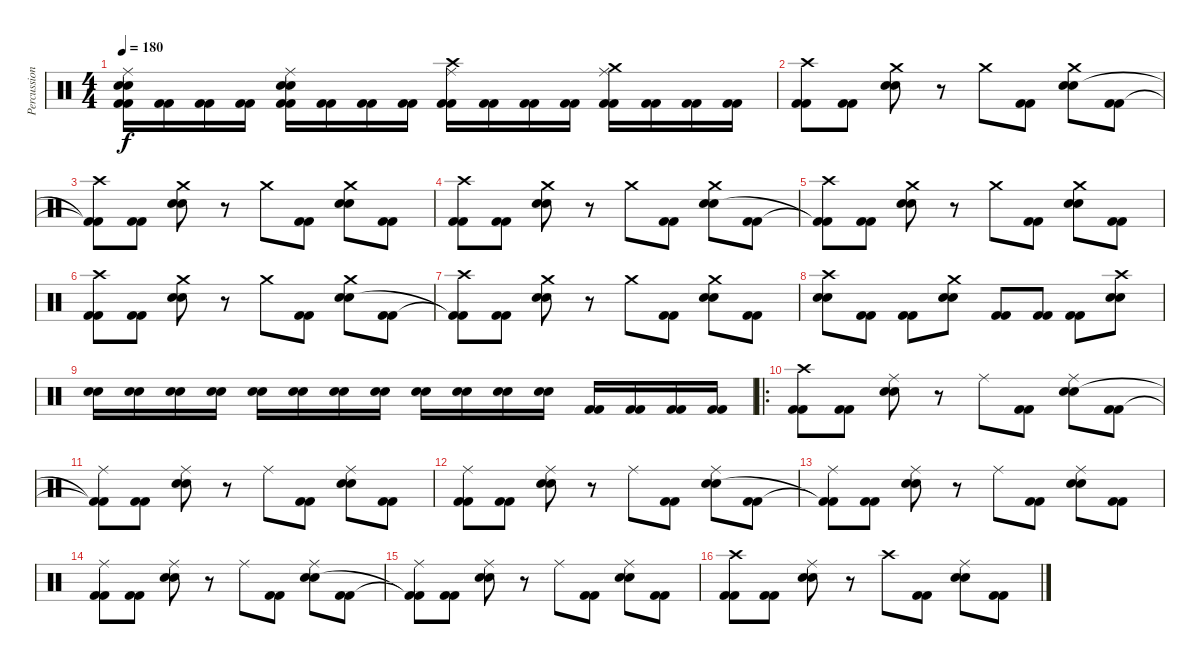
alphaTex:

\track ("Percussion" "Percussion") {instrument percussion}
\staff {score}
\articulation defaults
\ts (4 4)
\tempo 180
\clef neutral
\ks c
("Ride (middle)" "Snare (hit) 2" "Snare (hit) 2" "Kick (hit) 2" "Kick (hit) 2").16{dy f} ("Kick (hit) 2" "Kick (hit) 2").16 ("Kick (hit) 2" "Kick (hit) 2").16 ("Kick (hit) 2" "Kick (hit) 2").16 ("Ride (middle)" "Snare (hit) 2" "Snare (hit) 2" "Kick (hit) 2" "Kick (hit) 2").16 ("Kick (hit) 2" "Kick (hit) 2").16 ("Kick (hit) 2" "Kick (hit) 2").16 ("Kick (hit) 2" "Kick (hit) 2").16 ("Ride (middle)" "Crash high (hit)" "Kick (hit) 2" "Kick (hit) 2").16 ("Kick (hit) 2" "Kick (hit) 2").16 ("Kick (hit) 2" "Kick (hit) 2").16 ("Kick (hit) 2" "Kick (hit) 2").16 ("Ride (middle)" "Crash medium (hit)" "Kick (hit) 2" "Kick (hit) 2").16 ("Kick (hit) 2" "Kick (hit) 2").16 ("Kick (hit) 2" "Kick (hit) 2").16 ("Kick (hit) 2" "Kick (hit) 2").16 |
("Crash high (hit)" "Kick (hit) 2" "Kick (hit) 2").8 ("Kick (hit) 2" "Kick (hit) 2").8 ("Crash medium (hit)" "Snare (hit) 2" "Snare (hit) 2").8 r.8 "Crash medium (hit)".8 ("Kick (hit) 2" "Kick (hit) 2").8 ("Crash medium (hit)" "Snare (hit) 2" "Snare (hit) 2").8 ("Kick (hit) 2" "Kick (hit) 2").8 |
("Crash high (hit)" "Kick (hit) 2"{t} "Kick (hit) 2"{t}).8 ("Kick (hit) 2" "Kick (hit) 2").8 ("Crash medium (hit)" "Snare (hit) 2" "Snare (hit) 2").8 r.8 "Crash medium (hit)".8 ("Kick (hit) 2" "Kick (hit) 2").8 ("Crash medium (hit)" "Snare (hit) 2" "Snare (hit) 2").8 ("Kick (hit) 2" "Kick (hit) 2").8 |
("Crash high (hit)" "Kick (hit) 2" "Kick (hit) 2").8 ("Kick (hit) 2" "Kick (hit) 2").8 ("Crash medium (hit)" "Snare (hit) 2" "Snare (hit) 2").8 r.8 "Crash medium (hit)".8 ("Kick (hit) 2" "Kick (hit) 2").8 ("Crash medium (hit)" "Snare (hit) 2" "Snare (hit) 2").8 ("Kick (hit) 2" "Kick (hit) 2").8 |
("Crash high (hit)" "Kick (hit) 2"{t} "Kick (hit) 2"{t}).8 ("Kick (hit) 2" "Kick (hit) 2").8 ("Crash medium (hit)" "Snare (hit) 2" "Snare (hit) 2").8 r.8 "Crash medium (hit)".8 ("Kick (hit) 2" "Kick (hit) 2").8 ("Crash medium (hit)" "Snare (hit) 2" "Snare (hit) 2").8 ("Kick (hit) 2" "Kick (hit) 2").8 |
("Crash high (hit)" "Kick (hit) 2" "Kick (hit) 2").8 ("Kick (hit) 2" "Kick (hit) 2").8 ("Crash medium (hit)" "Snare (hit) 2" "Snare (hit) 2").8 r.8 "Crash medium (hit)".8 ("Kick (hit) 2" "Kick (hit) 2").8 ("Crash medium (hit)" "Snare (hit) 2" "Snare (hit) 2").8 ("Kick (hit) 2" "Kick (hit) 2").8 |
("Crash high (hit)" "Kick (hit) 2"{t} "Kick (hit) 2"{t}).8 ("Kick (hit) 2" "Kick (hit) 2").8 ("Crash medium (hit)" "Snare (hit) 2" "Snare (hit) 2").8 r.8 "Crash medium (hit)".8 ("Kick (hit) 2" "Kick (hit) 2").8 ("Crash medium (hit)" "Snare (hit) 2" "Snare (hit) 2").8 ("Kick (hit) 2" "Kick (hit) 2").8 |
("Crash high (hit)" "Snare (hit) 2" "Snare (hit) 2").8 ("Kick (hit) 2" "Kick (hit) 2").8 ("Kick (hit) 2" "Kick (hit) 2").8 ("Crash medium (hit)" "Snare (hit) 2" "Snare (hit) 2").8 ("Kick (hit) 2" "Kick (hit) 2").8 ("Kick (hit) 2" "Kick (hit) 2").8 ("Kick (hit) 2" "Kick (hit) 2").8 ("Crash high (hit)" "Snare (hit) 2" "Snare (hit) 2").8 |
("Snare (hit) 2" "Snare (hit) 2").16 ("Snare (hit) 2" "Snare (hit) 2").16 ("Snare (hit) 2" "Snare (hit) 2").16 ("Snare (hit) 2" "Snare (hit) 2").16 ("Snare (hit) 2" "Snare (hit) 2").16 ("Snare (hit) 2" "Snare (hit) 2").16 ("Snare (hit) 2" "Snare (hit) 2").16 ("Snare (hit) 2" "Snare (hit) 2").16 ("Snare (hit) 2" "Snare (hit) 2").16 ("Snare (hit) 2" "Snare (hit) 2").16 ("Snare (hit) 2" "Snare (hit) 2").16 ("Snare (hit) 2" "Snare (hit) 2").16 ("Kick (hit) 2" "Kick (hit) 2").16 ("Kick (hit) 2" "Kick (hit) 2").16 ("Kick (hit) 2" "Kick (hit) 2").16 ("Kick (hit) 2" "Kick (hit) 2").16 |
\ro
("Crash high (hit)" "Kick (hit) 2" "Kick (hit) 2").8 ("Kick (hit) 2" "Kick (hit) 2").8 ("Ride (middle)" "Snare (hit) 2" "Snare (hit) 2").8 r.8 "Ride (middle)".8 ("Kick (hit) 2" "Kick (hit) 2").8 ("Ride (middle)" "Snare (hit) 2" "Snare (hit) 2").8 ("Kick (hit) 2" "Kick (hit) 2").8 |
("Ride (middle)" "Kick (hit) 2"{t} "Kick (hit) 2"{t}).8 ("Kick (hit) 2" "Kick (hit) 2").8 ("Ride (middle)" "Snare (hit) 2" "Snare (hit) 2").8 r.8 "Ride (middle)".8 ("Kick (hit) 2" "Kick (hit) 2").8 ("Ride (middle)" "Snare (hit) 2" "Snare (hit) 2").8 ("Kick (hit) 2" "Kick (hit) 2").8 |
("Ride (middle)" "Kick (hit) 2" "Kick (hit) 2").8 ("Kick (hit) 2" "Kick (hit) 2").8 ("Ride (middle)" "Snare (hit) 2" "Snare (hit) 2").8 r.8 "Ride (middle)".8 ("Kick (hit) 2" "Kick (hit) 2").8 ("Ride (middle)" "Snare (hit) 2" "Snare (hit) 2").8 ("Kick (hit) 2" "Kick (hit) 2").8 |
("Ride (middle)" "Kick (hit) 2"{t} "Kick (hit) 2"{t}).8 ("Kick (hit) 2" "Kick (hit) 2").8 ("Ride (middle)" "Snare (hit) 2" "Snare (hit) 2").8 r.8 "Ride (middle)".8 ("Kick (hit) 2" "Kick (hit) 2").8 ("Ride (middle)" "Snare (hit) 2" "Snare (hit) 2").8 ("Kick (hit) 2" "Kick (hit) 2").8 |
("Ride (middle)" "Kick (hit) 2" "Kick (hit) 2").8 ("Kick (hit) 2" "Kick (hit) 2").8 ("Ride (middle)" "Snare (hit) 2" "Snare (hit) 2").8 r.8 "Ride (middle)".8 ("Kick (hit) 2" "Kick (hit) 2").8 ("Ride (middle)" "Snare (hit) 2" "Snare (hit) 2").8 ("Kick (hit) 2" "Kick (hit) 2").8 |
("Ride (middle)" "Kick (hit) 2"{t} "Kick (hit) 2"{t}).8 ("Kick (hit) 2" "Kick (hit) 2").8 ("Ride (middle)" "Snare (hit) 2" "Snare (hit) 2").8 r.8 "Ride (middle)".8 ("Kick (hit) 2" "Kick (hit) 2").8 ("Ride (middle)" "Snare (hit) 2" "Snare (hit) 2").8 ("Kick (hit) 2" "Kick (hit) 2").8 |
("Crash high (hit)" "Kick (hit) 2" "Kick (hit) 2").8 ("Kick (hit) 2" "Kick (hit) 2").8 ("Ride (middle)" "Snare (hit) 2" "Snare (hit) 2").8 r.8 "Crash high (hit)".8 ("Kick (hit) 2" "Kick (hit) 2").8 ("Ride (middle)" "Snare (hit) 2" "Snare (hit) 2").8 ("Kick (hit) 2" "Kick (hit) 2").8
